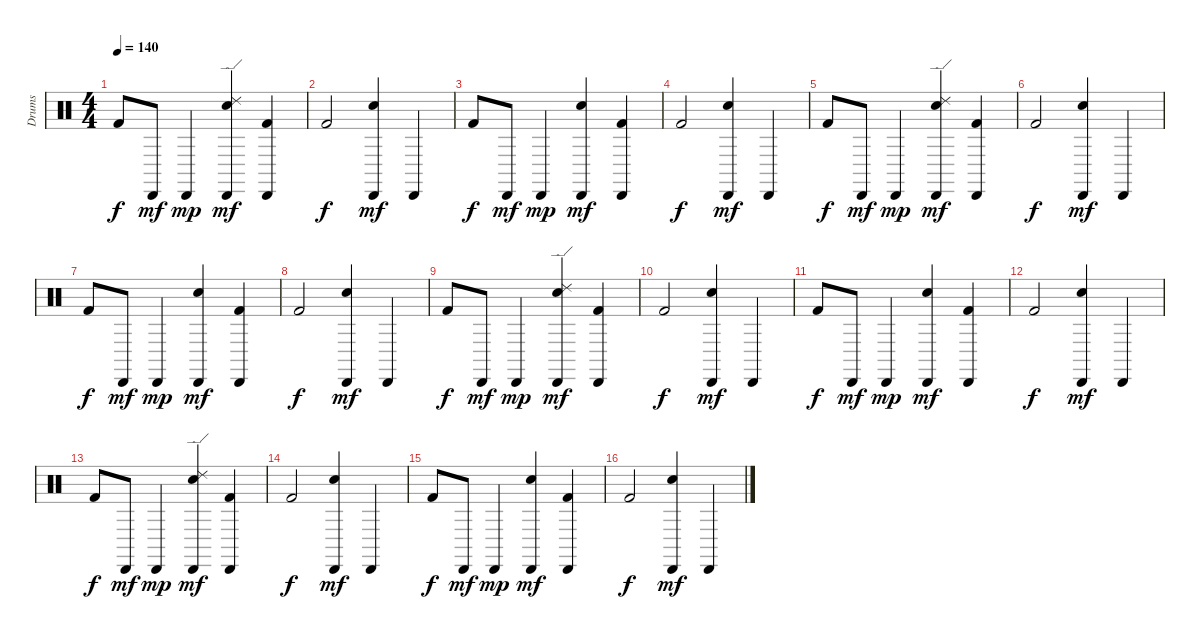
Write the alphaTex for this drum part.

\track ("Drums" "Drums") {instrument percussion}
\staff {score}
\articulation defaults
\ts (4 4)
\tempo 140
\clef neutral
\ks c "Kick (hit) 2".8{dy f} "Cabasa (hit)".8{dy mf} "Cabasa (hit)".4{dy mp}
("Snare (hit) 2" "Cabasa (hit)" "Ride (edge) 2").4{dy mf} ("Kick (hit) 2" "Cabasa (hit)").4 |
"Kick (hit) 2".2{dy f} ("Snare (hit) 2" "Cabasa (hit)").4{dy mf} "Cabasa (hit)".4 |
"Kick (hit) 2".8{dy f} "Cabasa (hit)".8{dy mf} "Cabasa (hit)".4{dy mp} ("Snare (hit) 2" "Cabasa (hit)").4{dy mf} ("Kick (hit) 2" "Cabasa (hit)").4 |
"Kick (hit) 2".2{dy f} ("Snare (hit) 2" "Cabasa (hit)").4{dy mf} "Cabasa (hit)".4 |
"Kick (hit) 2".8{dy f} "Cabasa (hit)".8{dy mf} "Cabasa (hit)".4{dy mp} ("Snare (hit) 2" "Cabasa (hit)" "Ride (edge) 2").4{dy mf} ("Kick (hit) 2" "Cabasa (hit)").4 |
"Kick (hit) 2".2{dy f} ("Snare (hit) 2" "Cabasa (hit)").4{dy mf} "Cabasa (hit)".4 |
"Kick (hit) 2".8{dy f} "Cabasa (hit)".8{dy mf} "Cabasa (hit)".4{dy mp} ("Snare (hit) 2" "Cabasa (hit)").4{dy mf} ("Kick (hit) 2" "Cabasa (hit)").4 |
"Kick (hit) 2".2{dy f} ("Snare (hit) 2" "Cabasa (hit)").4{dy mf} "Cabasa (hit)".4 |
"Kick (hit) 2".8{dy f} "Cabasa (hit)".8{dy mf} "Cabasa (hit)".4{dy mp} ("Snare (hit) 2" "Cabasa (hit)" "Ride (edge) 2").4{dy mf} ("Kick (hit) 2" "Cabasa (hit)").4 |
"Kick (hit) 2".2{dy f} ("Snare (hit) 2" "Cabasa (hit)").4{dy mf} "Cabasa (hit)".4 |
"Kick (hit) 2".8{dy f} "Cabasa (hit)".8{dy mf} "Cabasa (hit)".4{dy mp} ("Snare (hit) 2" "Cabasa (hit)").4{dy mf} ("Kick (hit) 2" "Cabasa (hit)").4 |
"Kick (hit) 2".2{dy f} ("Snare (hit) 2" "Cabasa (hit)").4{dy mf} "Cabasa (hit)".4 |
"Kick (hit) 2".8{dy f} "Cabasa (hit)".8{dy mf} "Cabasa (hit)".4{dy mp} ("Snare (hit) 2" "Cabasa (hit)" "Ride (edge) 2").4{dy mf} ("Kick (hit) 2" "Cabasa (hit)").4 |
"Kick (hit) 2".2{dy f} ("Snare (hit) 2" "Cabasa (hit)").4{dy mf} "Cabasa (hit)".4 |
"Kick (hit) 2".8{dy f} "Cabasa (hit)".8{dy mf} "Cabasa (hit)".4{dy mp} ("Snare (hit) 2" "Cabasa (hit)").4{dy mf} ("Kick (hit) 2" "Cabasa (hit)").4 |
"Kick (hit) 2".2{dy f} ("Snare (hit) 2" "Cabasa (hit)").4{dy mf} "Cabasa (hit)".4
